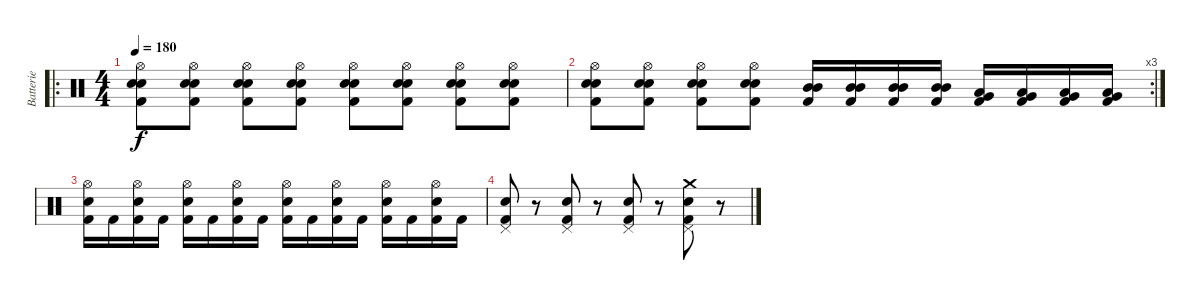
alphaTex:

\track ("Batterie" "Batterie") {instrument percussion}
\staff {score}
\articulation defaults
\ro
\ts (4 4)
\tempo 180
\clef neutral
\ks c
("Kick (hit) 2" "Snare (hit) 2" "Electric Snare (hit)" "Hi-Hat (open)").8{dy f} ("Kick (hit) 2" "Snare (hit) 2" "Electric Snare (hit)" "Hi-Hat (open)").8 ("Kick (hit) 2" "Snare (hit) 2" "Electric Snare (hit)" "Hi-Hat (open)").8 ("Kick (hit) 2" "Snare (hit) 2" "Electric Snare (hit)" "Hi-Hat (open)").8 ("Kick (hit) 2" "Snare (hit) 2" "Electric Snare (hit)" "Hi-Hat (open)").8 ("Kick (hit) 2" "Snare (hit) 2" "Electric Snare (hit)" "Hi-Hat (open)").8 ("Kick (hit) 2" "Snare (hit) 2" "Electric Snare (hit)" "Hi-Hat (open)").8 ("Kick (hit) 2" "Snare (hit) 2" "Electric Snare (hit)" "Hi-Hat (open)").8 |
\rc 3
("Kick (hit) 2" "Snare (hit) 2" "Electric Snare (hit)" "Hi-Hat (open)").8 ("Kick (hit) 2" "Snare (hit) 2" "Electric Snare (hit)" "Hi-Hat (open)").8 ("Kick (hit) 2" "Snare (hit) 2" "Electric Snare (hit)" "Hi-Hat (open)").8 ("Kick (hit) 2" "Snare (hit) 2" "Electric Snare (hit)" "Hi-Hat (open)").8 ("Mid Tom (hit)" "Mid Tom (hit)" "Kick (hit) 2").16 ("Mid Tom (hit)" "Mid Tom (hit)" "Kick (hit) 2").16 ("Mid Tom (hit)" "Mid Tom (hit)" "Kick (hit) 2").16 ("Mid Tom (hit)" "Mid Tom (hit)" "Kick (hit) 2").16 ("Very Low Tom (hit)" "Low Tom (hit)" "Kick (hit) 2").16 ("Very Low Tom (hit)" "Low Tom (hit)" "Kick (hit) 2").16 ("Very Low Tom (hit)" "Low Tom (hit)" "Kick (hit) 2").16 ("Very Low Tom (hit)" "Low Tom (hit)" "Kick (hit) 2").16 |
("Hi-Hat (open)" "Electric Snare (hit)" "Kick (hit) 2").16 "Kick (hit) 2".16 ("Electric Snare (hit)" "Hi-Hat (open)" "Kick (hit) 2").16 "Kick (hit) 2".16 ("Hi-Hat (open)" "Electric Snare (hit)" "Kick (hit) 2").16 "Kick (hit) 2".16 ("Electric Snare (hit)" "Hi-Hat (open)" "Kick (hit) 2").16 "Kick (hit) 2".16 ("Electric Snare (hit)" "Hi-Hat (open)" "Kick (hit) 2").16 "Kick (hit) 2".16 ("Electric Snare (hit)" "Hi-Hat (open)" "Kick (hit) 2").16 "Kick (hit) 2".16 ("Hi-Hat (open)" "Electric Snare (hit)" "Kick (hit) 2").16 "Kick (hit) 2".16 ("Hi-Hat (open)" "Electric Snare (hit)" "Kick (hit) 2").16 "Kick (hit) 2".16 |
("Snare (hit) 2" "Pedal Hi-Hat (hit)" "Kick (hit) 2").8 r.8 ("Snare (hit) 2" "Pedal Hi-Hat (hit)" "Kick (hit) 2").8 r.8 ("Snare (hit) 2" "Pedal Hi-Hat (hit)" "Kick (hit) 2").8 r.8 ("Snare (hit) 2" "Crash medium (hit)" "Pedal Hi-Hat (hit)" "Kick (hit) 2").8 r.8
